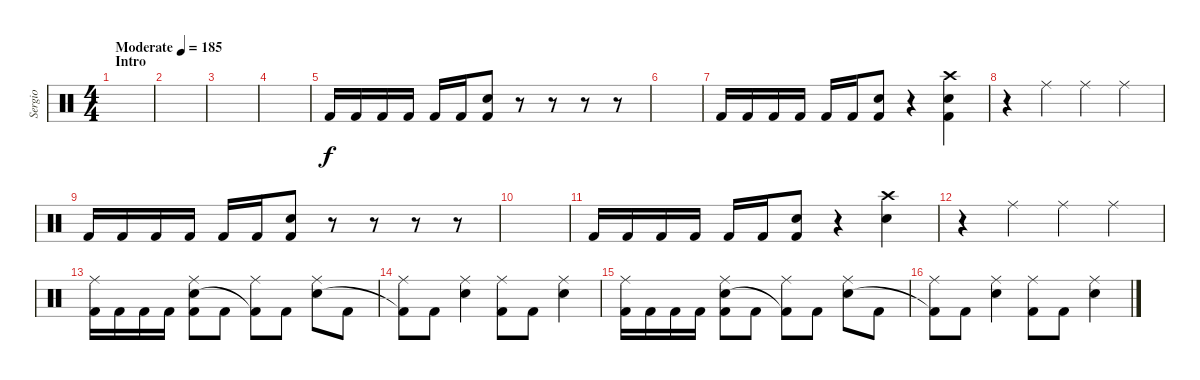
\track ("Sergio" "Sergio") {instrument percussion}
\staff {score}
\articulation defaults
\ts (4 4)
\section ("" "Intro")
\tempo (185 "Moderate")
\clef neutral
\ks c
|
|
|
|
"Kick (hit) 2".16 "Kick (hit) 2".16 "Kick (hit) 2".16 "Kick (hit) 2".16 "Kick (hit) 2".16 "Kick (hit) 2".16 ("Electric Snare (hit)" "Kick (hit) 2").8 r.8 r.8 r.8 r.8 |
|
"Kick (hit) 2".16 "Kick (hit) 2".16 "Kick (hit) 2".16 "Kick (hit) 2".16 "Kick (hit) 2".16 "Kick (hit) 2".16 ("Electric Snare (hit)" "Kick (hit) 2").8 r.4 ("Crash high (hit)" "Electric Snare (hit)" "Kick (hit) 2").4 |
r.4 "Ride (middle)".4 "Ride (middle)".4 "Ride (middle)".4 |
"Kick (hit) 2".16 "Kick (hit) 2".16 "Kick (hit) 2".16 "Kick (hit) 2".16 "Kick (hit) 2".16 "Kick (hit) 2".16 ("Electric Snare (hit)" "Kick (hit) 2").8 r.8 r.8 r.8 r.8 |
|
"Kick (hit) 2".16 "Kick (hit) 2".16 "Kick (hit) 2".16 "Kick (hit) 2".16 "Kick (hit) 2".16 "Kick (hit) 2".16 ("Electric Snare (hit)" "Kick (hit) 2").8 r.4 ("Crash high (hit)" "Electric Snare (hit)").4 |
r.4 "Ride (middle)".4 "Ride (middle)".4 "Ride (middle)".4 |
("Ride (middle)" "Kick (hit) 2").16 "Kick (hit) 2".16 "Kick (hit) 2".16 "Kick (hit) 2".16 ("Ride (middle)" "Electric Snare (hit)" "Kick (hit) 2").8 "Kick (hit) 2".8 ("Ride (middle)" "Kick (hit) 2"{t}).8 "Kick (hit) 2".8 ("Ride (middle)" "Electric Snare (hit)").8 "Kick (hit) 2".8 |
("Ride (middle)" "Kick (hit) 2"{t}).8 "Kick (hit) 2".8 ("Ride (middle)" "Electric Snare (hit)").4 ("Ride (middle)" "Kick (hit) 2").8 "Kick (hit) 2".8 ("Ride (middle)" "Electric Snare (hit)").4 |
("Ride (middle)" "Kick (hit) 2").16 "Kick (hit) 2".16 "Kick (hit) 2".16 "Kick (hit) 2".16 ("Ride (middle)" "Electric Snare (hit)" "Kick (hit) 2").8 "Kick (hit) 2".8 ("Ride (middle)" "Kick (hit) 2"{t}).8 "Kick (hit) 2".8 ("Ride (middle)" "Electric Snare (hit)").8 "Kick (hit) 2".8 |
("Ride (middle)" "Kick (hit) 2"{t}).8 "Kick (hit) 2".8 ("Ride (middle)" "Electric Snare (hit)").4 ("Ride (middle)" "Kick (hit) 2").8 "Kick (hit) 2".8 ("Ride (middle)" "Electric Snare (hit)").4
